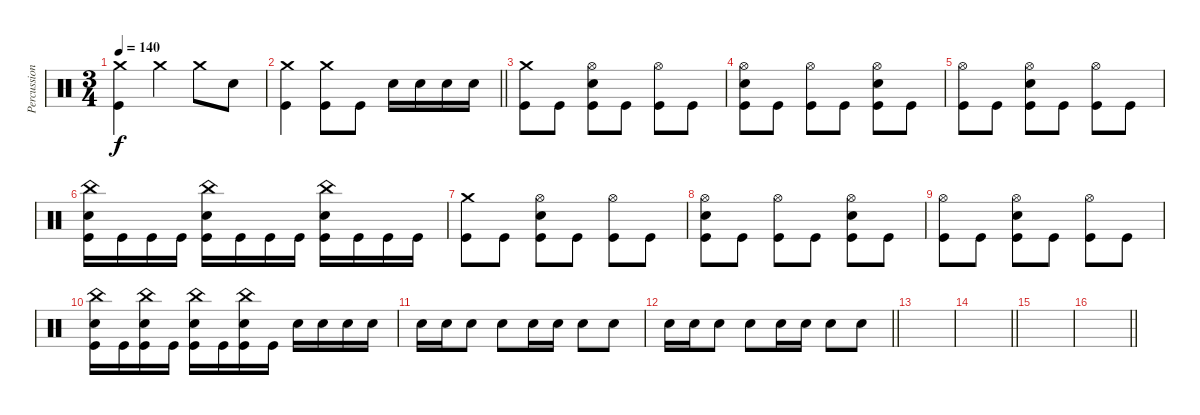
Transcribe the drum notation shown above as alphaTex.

\track ("Percussion" "Percussion") {instrument percussion}
\staff {score}
\articulation defaults
\ts (3 4)
\tempo 140
\clef neutral
\ks c
("Crash medium (hit)" "Kick (hit)").4{dy f} "Crash medium (hit)".4 "Crash medium (hit)".8 "Electric Snare (hit)".8 |
\barLineRight lightlight
("Crash medium (hit)" "Kick (hit)").4 ("Crash medium (hit)" "Kick (hit)").8 "Kick (hit)".8 "Electric Snare (hit)".16 "Electric Snare (hit)".16 "Electric Snare (hit)".16 "Electric Snare (hit)".16 |
("Crash medium (hit)" "Kick (hit)").8 "Kick (hit)".8 ("Hi-Hat (open)" "Electric Snare (hit)" "Kick (hit)").8 "Kick (hit)".8 ("Hi-Hat (open)" "Kick (hit)").8 "Kick (hit)".8 |
("Hi-Hat (open)" "Electric Snare (hit)" "Kick (hit)").8 "Kick (hit)".8 ("Hi-Hat (open)" "Kick (hit)").8 "Kick (hit)".8 ("Hi-Hat (open)" "Electric Snare (hit)" "Kick (hit)").8 "Kick (hit)".8 |
("Hi-Hat (open)" "Kick (hit)").8 "Kick (hit)".8 ("Hi-Hat (open)" "Electric Snare (hit)" "Kick (hit)").8 "Kick (hit)".8 ("Hi-Hat (open)" "Kick (hit)").8 "Kick (hit)".8 |
("China (hit)" "Electric Snare (hit)" "Kick (hit)").16 "Kick (hit)".16 "Kick (hit)".16 "Kick (hit)".16 ("China (hit)" "Electric Snare (hit)" "Kick (hit)").16 "Kick (hit)".16 "Kick (hit)".16 "Kick (hit)".16 ("China (hit)" "Electric Snare (hit)" "Kick (hit)").16 "Kick (hit)".16 "Kick (hit)".16 "Kick (hit)".16 |
("Crash medium (hit)" "Kick (hit)").8 "Kick (hit)".8 ("Hi-Hat (open)" "Electric Snare (hit)" "Kick (hit)").8 "Kick (hit)".8 ("Hi-Hat (open)" "Kick (hit)").8 "Kick (hit)".8 |
("Hi-Hat (open)" "Electric Snare (hit)" "Kick (hit)").8 "Kick (hit)".8 ("Hi-Hat (open)" "Kick (hit)").8 "Kick (hit)".8 ("Hi-Hat (open)" "Electric Snare (hit)" "Kick (hit)").8 "Kick (hit)".8 |
("Hi-Hat (open)" "Kick (hit)").8 "Kick (hit)".8 ("Hi-Hat (open)" "Electric Snare (hit)" "Kick (hit)").8 "Kick (hit)".8 ("Hi-Hat (open)" "Kick (hit)").8 "Kick (hit)".8 |
("China (hit)" "Electric Snare (hit)" "Kick (hit)").16 "Kick (hit)".16 ("China (hit)" "Electric Snare (hit)" "Kick (hit)").16 "Kick (hit)".16 ("China (hit)" "Electric Snare (hit)" "Kick (hit)").16 "Kick (hit)".16 ("China (hit)" "Electric Snare (hit)" "Kick (hit)").16 "Kick (hit)".16 "Electric Snare (hit)".16 "Electric Snare (hit)".16 "Electric Snare (hit)".16 "Electric Snare (hit)".16 |
"Electric Snare (hit)".16 "Electric Snare (hit)".16 "Electric Snare (hit)".8 "Electric Snare (hit)".8 "Electric Snare (hit)".16 "Electric Snare (hit)".16 "Electric Snare (hit)".8 "Electric Snare (hit)".8 |
\barLineRight lightlight "Electric Snare (hit)".16 "Electric Snare (hit)".16 "Electric Snare (hit)".8 "Electric Snare (hit)".8 "Electric Snare (hit)".16 "Electric Snare (hit)".16 "Electric Snare (hit)".8 "Electric Snare (hit)".8
|
|
\barLineRight lightlight
|
|
\barLineRight lightlight
